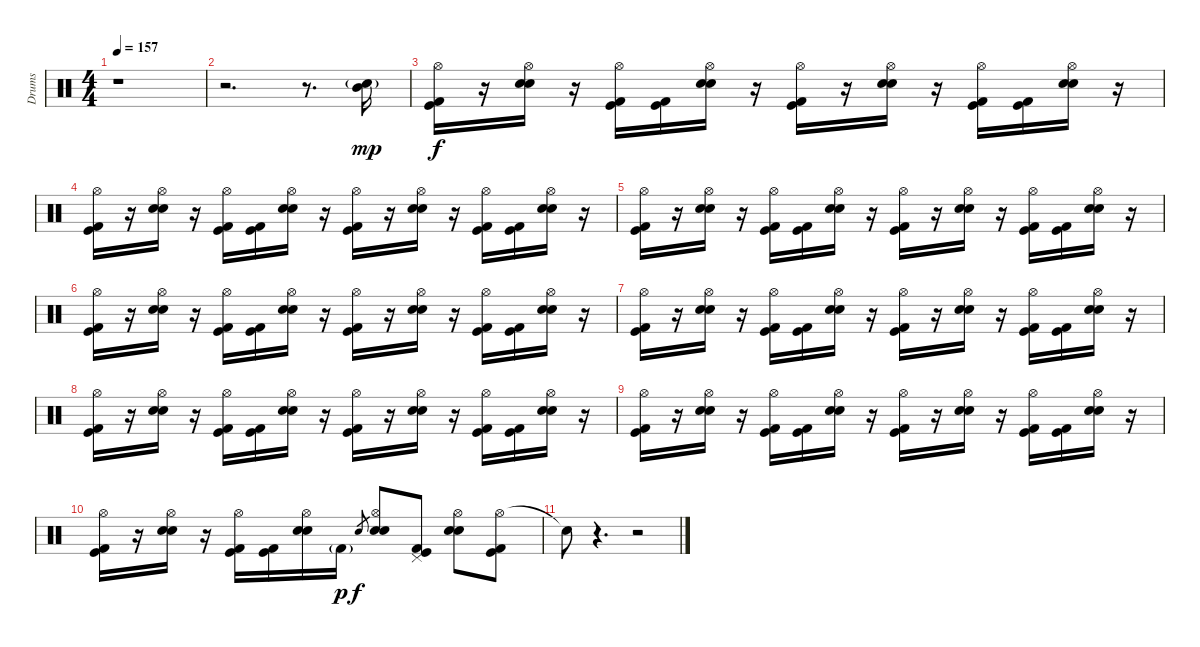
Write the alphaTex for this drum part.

\track ("Drums" "Drums") {instrument percussion}
\staff {score}
\articulation defaults
\ts (4 4)
\tempo 157
\clef neutral
\ks c
r.1{dy f} |
r.2{d} r.8{d} ("Mid Tom (hit)" "Electric Snare (hit)"{g}).16{dy mp} |
("Hi-Hat (open)" "Kick (hit)" "Kick (hit) 2").16{dy f} r.16 ("Hi-Hat (open)" "Snare (hit) 2" "Electric Snare (hit)").16 r.16 ("Hi-Hat (open)" "Kick (hit)" "Kick (hit) 2").16 ("Kick (hit)" "Kick (hit) 2").16 ("Hi-Hat (open)" "Snare (hit) 2" "Electric Snare (hit)").16 r.16 ("Hi-Hat (open)" "Kick (hit)" "Kick (hit) 2").16 r.16 ("Hi-Hat (open)" "Snare (hit) 2" "Electric Snare (hit)").16 r.16 ("Hi-Hat (open)" "Kick (hit)" "Kick (hit) 2").16 ("Kick (hit)" "Kick (hit) 2").16 ("Hi-Hat (open)" "Snare (hit) 2" "Electric Snare (hit)").16 r.16 |
("Hi-Hat (open)" "Kick (hit)" "Kick (hit) 2").16 r.16 ("Hi-Hat (open)" "Snare (hit) 2" "Electric Snare (hit)").16 r.16 ("Hi-Hat (open)" "Kick (hit)" "Kick (hit) 2").16 ("Kick (hit)" "Kick (hit) 2").16 ("Hi-Hat (open)" "Snare (hit) 2" "Electric Snare (hit)").16 r.16 ("Hi-Hat (open)" "Kick (hit)" "Kick (hit) 2").16 r.16 ("Hi-Hat (open)" "Snare (hit) 2" "Electric Snare (hit)").16 r.16 ("Hi-Hat (open)" "Kick (hit)" "Kick (hit) 2").16 ("Kick (hit)" "Kick (hit) 2").16 ("Hi-Hat (open)" "Snare (hit) 2" "Electric Snare (hit)").16 r.16 |
("Hi-Hat (open)" "Kick (hit)" "Kick (hit) 2").16 r.16 ("Hi-Hat (open)" "Snare (hit) 2" "Electric Snare (hit)").16 r.16 ("Hi-Hat (open)" "Kick (hit)" "Kick (hit) 2").16 ("Kick (hit)" "Kick (hit) 2").16 ("Hi-Hat (open)" "Snare (hit) 2" "Electric Snare (hit)").16 r.16 ("Hi-Hat (open)" "Kick (hit)" "Kick (hit) 2").16 r.16 ("Hi-Hat (open)" "Snare (hit) 2" "Electric Snare (hit)").16 r.16 ("Hi-Hat (open)" "Kick (hit)" "Kick (hit) 2").16 ("Kick (hit)" "Kick (hit) 2").16 ("Hi-Hat (open)" "Snare (hit) 2" "Electric Snare (hit)").16 r.16 |
("Hi-Hat (open)" "Kick (hit)" "Kick (hit) 2").16 r.16 ("Hi-Hat (open)" "Snare (hit) 2" "Electric Snare (hit)").16 r.16 ("Hi-Hat (open)" "Kick (hit)" "Kick (hit) 2").16 ("Kick (hit)" "Kick (hit) 2").16 ("Hi-Hat (open)" "Snare (hit) 2" "Electric Snare (hit)").16 r.16 ("Hi-Hat (open)" "Kick (hit)" "Kick (hit) 2").16 r.16 ("Hi-Hat (open)" "Snare (hit) 2" "Electric Snare (hit)").16 r.16 ("Hi-Hat (open)" "Kick (hit)" "Kick (hit) 2").16 ("Kick (hit)" "Kick (hit) 2").16 ("Hi-Hat (open)" "Snare (hit) 2" "Electric Snare (hit)").16 r.16 |
("Hi-Hat (open)" "Kick (hit)" "Kick (hit) 2").16 r.16 ("Hi-Hat (open)" "Snare (hit) 2" "Electric Snare (hit)").16 r.16 ("Hi-Hat (open)" "Kick (hit)" "Kick (hit) 2").16 ("Kick (hit)" "Kick (hit) 2").16 ("Hi-Hat (open)" "Snare (hit) 2" "Electric Snare (hit)").16 r.16 ("Hi-Hat (open)" "Kick (hit)" "Kick (hit) 2").16 r.16 ("Hi-Hat (open)" "Snare (hit) 2" "Electric Snare (hit)").16 r.16 ("Hi-Hat (open)" "Kick (hit)" "Kick (hit) 2").16 ("Kick (hit)" "Kick (hit) 2").16 ("Hi-Hat (open)" "Snare (hit) 2" "Electric Snare (hit)").16 r.16 |
("Hi-Hat (open)" "Kick (hit)" "Kick (hit) 2").16 r.16 ("Hi-Hat (open)" "Snare (hit) 2" "Electric Snare (hit)").16 r.16 ("Hi-Hat (open)" "Kick (hit)" "Kick (hit) 2").16 ("Kick (hit)" "Kick (hit) 2").16 ("Hi-Hat (open)" "Snare (hit) 2" "Electric Snare (hit)").16 r.16 ("Hi-Hat (open)" "Kick (hit)" "Kick (hit) 2").16 r.16 ("Hi-Hat (open)" "Snare (hit) 2" "Electric Snare (hit)").16 r.16 ("Hi-Hat (open)" "Kick (hit)" "Kick (hit) 2").16 ("Kick (hit)" "Kick (hit) 2").16 ("Hi-Hat (open)" "Snare (hit) 2" "Electric Snare (hit)").16 r.16 |
("Hi-Hat (open)" "Kick (hit)" "Kick (hit) 2").16 r.16 ("Hi-Hat (open)" "Snare (hit) 2" "Electric Snare (hit)").16 r.16 ("Hi-Hat (open)" "Kick (hit)" "Kick (hit) 2").16 ("Kick (hit)" "Kick (hit) 2").16 ("Hi-Hat (open)" "Snare (hit) 2" "Electric Snare (hit)").16 r.16 ("Hi-Hat (open)" "Kick (hit)" "Kick (hit) 2").16 r.16 ("Hi-Hat (open)" "Snare (hit) 2" "Electric Snare (hit)").16 r.16 ("Hi-Hat (open)" "Kick (hit)" "Kick (hit) 2").16 ("Kick (hit)" "Kick (hit) 2").16 ("Hi-Hat (open)" "Snare (hit) 2" "Electric Snare (hit)").16 r.16 |
("Hi-Hat (open)" "Kick (hit)" "Kick (hit) 2").16 r.16 ("Hi-Hat (open)" "Snare (hit) 2" "Electric Snare (hit)").16 r.16 ("Hi-Hat (open)" "Kick (hit)" "Kick (hit) 2").16 ("Kick (hit)" "Kick (hit) 2").16 ("Hi-Hat (open)" "Snare (hit) 2" "Electric Snare (hit)").16 "Kick (hit) 2"{g}.16{dy p} "Electric Snare (hit)".8{gr dy f} ("Hi-Hat (open)" "Snare (hit) 2" "Electric Snare (hit)").8 ("Pedal Hi-Hat (hit)" "Kick (hit)" "Kick (hit) 2").8 ("Hi-Hat (open)" "Snare (hit) 2" "Electric Snare (hit)").8 ("Hi-Hat (open)" "Kick (hit)" "Kick (hit) 2").8 |
"Snare (hit)"{t}.8 r.4{d} r.2
